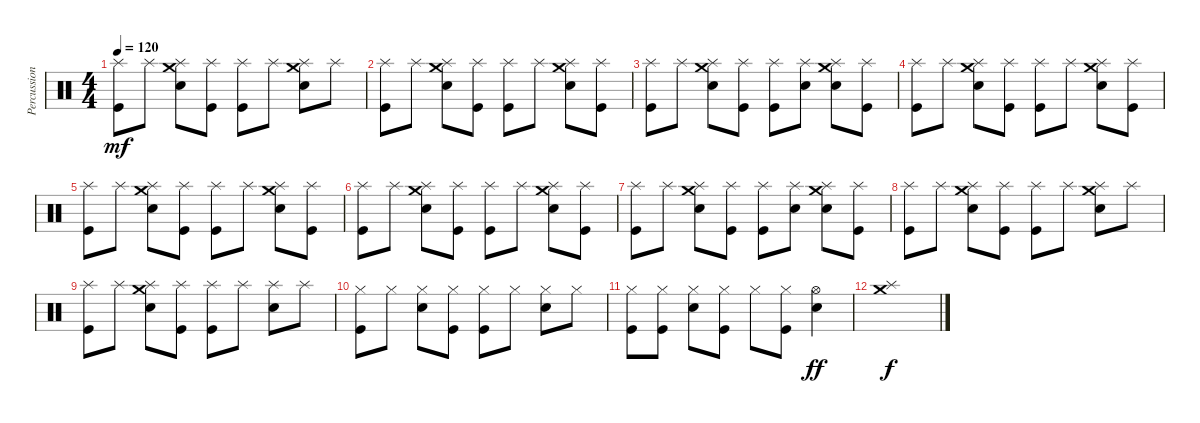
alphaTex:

\track ("Percussion" "Percussion") {instrument percussion}
\staff {score}
\articulation defaults
\ts (4 4)
\tempo 120
\clef neutral
\ks c
("Splash (hit)" "Kick (hit)").8{dy mf} "Splash (hit)".8 ("Splash (hit)" "Crash medium (hit)" "Snare (hit) 2").8 ("Splash (hit)" "Kick (hit)").8 ("Splash (hit)" "Kick (hit)").8 "Splash (hit)".8 ("Splash (hit)" "Crash medium (hit)" "Snare (hit) 2").8 "Splash (hit)".8 |
("Splash (hit)" "Kick (hit)").8 "Splash (hit)".8 ("Splash (hit)" "Crash medium (hit)" "Snare (hit) 2").8 ("Splash (hit)" "Kick (hit)").8 ("Splash (hit)" "Kick (hit)").8 "Splash (hit)".8 ("Splash (hit)" "Crash medium (hit)" "Snare (hit) 2").8 ("Splash (hit)" "Kick (hit)").8 |
("Splash (hit)" "Kick (hit)").8 "Splash (hit)".8 ("Splash (hit)" "Crash medium (hit)" "Snare (hit) 2").8 ("Splash (hit)" "Kick (hit)").8 ("Splash (hit)" "Kick (hit)").8 ("Splash (hit)" "Snare (hit) 2").8 ("Splash (hit)" "Crash medium (hit)" "Snare (hit) 2").8 ("Splash (hit)" "Kick (hit)").8 |
("Splash (hit)" "Kick (hit)").8 "Splash (hit)".8 ("Splash (hit)" "Crash medium (hit)" "Snare (hit) 2").8 ("Splash (hit)" "Kick (hit)").8 ("Splash (hit)" "Kick (hit)").8 "Splash (hit)".8 ("Splash (hit)" "Crash medium (hit)" "Snare (hit) 2").8 ("Splash (hit)" "Kick (hit)").8 |
("Splash (hit)" "Kick (hit)").8 "Splash (hit)".8 ("Splash (hit)" "Crash medium (hit)" "Snare (hit) 2").8 ("Splash (hit)" "Kick (hit)").8 ("Splash (hit)" "Kick (hit)").8 "Splash (hit)".8 ("Splash (hit)" "Crash medium (hit)" "Snare (hit) 2").8 ("Splash (hit)" "Kick (hit)").8 |
("Splash (hit)" "Kick (hit)").8 "Splash (hit)".8 ("Splash (hit)" "Crash medium (hit)" "Snare (hit) 2").8 ("Splash (hit)" "Kick (hit)").8 ("Splash (hit)" "Kick (hit)").8 "Splash (hit)".8 ("Splash (hit)" "Crash medium (hit)" "Snare (hit) 2").8 ("Splash (hit)" "Kick (hit)").8 |
("Splash (hit)" "Kick (hit)").8 "Splash (hit)".8 ("Splash (hit)" "Crash medium (hit)" "Snare (hit) 2").8 ("Splash (hit)" "Kick (hit)").8 ("Splash (hit)" "Kick (hit)").8 ("Splash (hit)" "Snare (hit) 2").8 ("Splash (hit)" "Crash medium (hit)" "Snare (hit) 2").8 ("Splash (hit)" "Kick (hit)").8 |
("Splash (hit)" "Kick (hit)").8 "Splash (hit)".8 ("Splash (hit)" "Crash medium (hit)" "Snare (hit) 2").8 ("Splash (hit)" "Kick (hit)").8 ("Splash (hit)" "Kick (hit)").8 "Splash (hit)".8 ("Splash (hit)" "Crash medium (hit)" "Snare (hit) 2").8 "Splash (hit)".8 |
("Splash (hit)" "Kick (hit)").8 "Splash (hit)".8 ("Splash (hit)" "Crash medium (hit)" "Snare (hit) 2").8 ("Splash (hit)" "Kick (hit)").8 ("Splash (hit)" "Kick (hit)").8 "Splash (hit)".8 ("Splash (hit)" "Snare (hit) 2").8 "Splash (hit)".8 |
("Hi-Hat (closed)" "Kick (hit)").8 "Hi-Hat (closed)".8 ("Hi-Hat (closed)" "Snare (hit) 2").8 ("Hi-Hat (closed)" "Kick (hit)").8 ("Hi-Hat (closed)" "Kick (hit)").8 "Hi-Hat (closed)".8 ("Hi-Hat (closed)" "Snare (hit) 2").8 "Hi-Hat (closed)".8 |
("Hi-Hat (closed)" "Kick (hit)").8 ("Hi-Hat (closed)" "Kick (hit)").8 ("Hi-Hat (closed)" "Snare (hit) 2").8 ("Hi-Hat (closed)" "Kick (hit)").8 "Hi-Hat (closed)".8 ("Hi-Hat (closed)" "Kick (hit)").8 ("Hi-Hat (open)" "Snare (hit) 2").4{dy ff} |
("Splash (hit)" "Crash medium (hit)").1{dy f}
